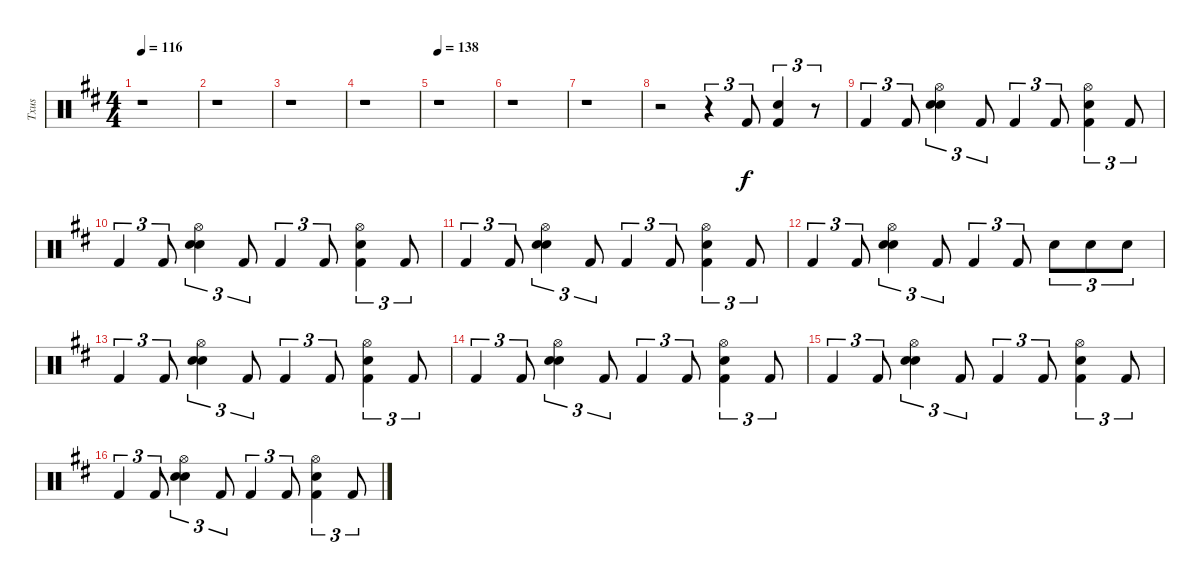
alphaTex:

\track ("Txus" "Txus") {instrument percussion}
\staff {score}
\articulation defaults
\ts (4 4)
\tempo 116
\clef neutral
\ks d
r.1{dy f} |
r.1 |
r.1 |
r.1 |
\tempo 138
r.1 |
r.1 |
r.1 |
r.2 r.4{tu (3 2)} "Kick (hit) 2".8{tu (3 2)} ("Electric Snare (hit)" "Kick (hit) 2").4{tu (3 2)} r.8{tu (3 2)} |
"Kick (hit) 2".4{tu (3 2)} "Kick (hit) 2".8{tu (3 2)} ("Hi-Hat (open)" "Electric Snare (hit)" "Snare (hit) 2").4{tu (3 2)} "Kick (hit) 2".8{tu (3 2)} "Kick (hit) 2".4{tu (3 2)} "Kick (hit) 2".8{tu (3 2)} ("Hi-Hat (open)" "Electric Snare (hit)" "Kick (hit) 2").4{tu (3 2)} "Kick (hit) 2".8{tu (3 2)} |
"Kick (hit) 2".4{tu (3 2)} "Kick (hit) 2".8{tu (3 2)} ("Hi-Hat (open)" "Electric Snare (hit)" "Snare (hit) 2").4{tu (3 2)} "Kick (hit) 2".8{tu (3 2)} "Kick (hit) 2".4{tu (3 2)} "Kick (hit) 2".8{tu (3 2)} ("Hi-Hat (open)" "Electric Snare (hit)" "Kick (hit) 2").4{tu (3 2)} "Kick (hit) 2".8{tu (3 2)} |
"Kick (hit) 2".4{tu (3 2)} "Kick (hit) 2".8{tu (3 2)} ("Hi-Hat (open)" "Electric Snare (hit)" "Snare (hit) 2").4{tu (3 2)} "Kick (hit) 2".8{tu (3 2)} "Kick (hit) 2".4{tu (3 2)} "Kick (hit) 2".8{tu (3 2)} ("Hi-Hat (open)" "Electric Snare (hit)" "Kick (hit) 2").4{tu (3 2)} "Kick (hit) 2".8{tu (3 2)} |
"Kick (hit) 2".4{tu (3 2)} "Kick (hit) 2".8{tu (3 2)} ("Hi-Hat (open)" "Electric Snare (hit)" "Snare (hit) 2").4{tu (3 2)} "Kick (hit) 2".8{tu (3 2)} "Kick (hit) 2".4{tu (3 2)} "Kick (hit) 2".8{tu (3 2)} "Electric Snare (hit)".8{tu (3 2)} "Electric Snare (hit)".8{tu (3 2)} "Electric Snare (hit)".8{tu (3 2)} |
"Kick (hit) 2".4{tu (3 2)} "Kick (hit) 2".8{tu (3 2)} ("Hi-Hat (open)" "Electric Snare (hit)" "Snare (hit) 2").4{tu (3 2)} "Kick (hit) 2".8{tu (3 2)} "Kick (hit) 2".4{tu (3 2)} "Kick (hit) 2".8{tu (3 2)} ("Hi-Hat (open)" "Electric Snare (hit)" "Kick (hit) 2").4{tu (3 2)} "Kick (hit) 2".8{tu (3 2)} |
"Kick (hit) 2".4{tu (3 2)} "Kick (hit) 2".8{tu (3 2)} ("Hi-Hat (open)" "Electric Snare (hit)" "Snare (hit) 2").4{tu (3 2)} "Kick (hit) 2".8{tu (3 2)} "Kick (hit) 2".4{tu (3 2)} "Kick (hit) 2".8{tu (3 2)} ("Hi-Hat (open)" "Electric Snare (hit)" "Kick (hit) 2").4{tu (3 2)} "Kick (hit) 2".8{tu (3 2)} |
"Kick (hit) 2".4{tu (3 2)} "Kick (hit) 2".8{tu (3 2)} ("Hi-Hat (open)" "Electric Snare (hit)" "Snare (hit) 2").4{tu (3 2)} "Kick (hit) 2".8{tu (3 2)} "Kick (hit) 2".4{tu (3 2)} "Kick (hit) 2".8{tu (3 2)} ("Hi-Hat (open)" "Electric Snare (hit)" "Kick (hit) 2").4{tu (3 2)} "Kick (hit) 2".8{tu (3 2)} |
"Kick (hit) 2".4{tu (3 2)} "Kick (hit) 2".8{tu (3 2)} ("Hi-Hat (open)" "Electric Snare (hit)" "Snare (hit) 2").4{tu (3 2)} "Kick (hit) 2".8{tu (3 2)} "Kick (hit) 2".4{tu (3 2)} "Kick (hit) 2".8{tu (3 2)} ("Hi-Hat (open)" "Electric Snare (hit)" "Kick (hit) 2").4{tu (3 2)} "Kick (hit) 2".8{tu (3 2)}
